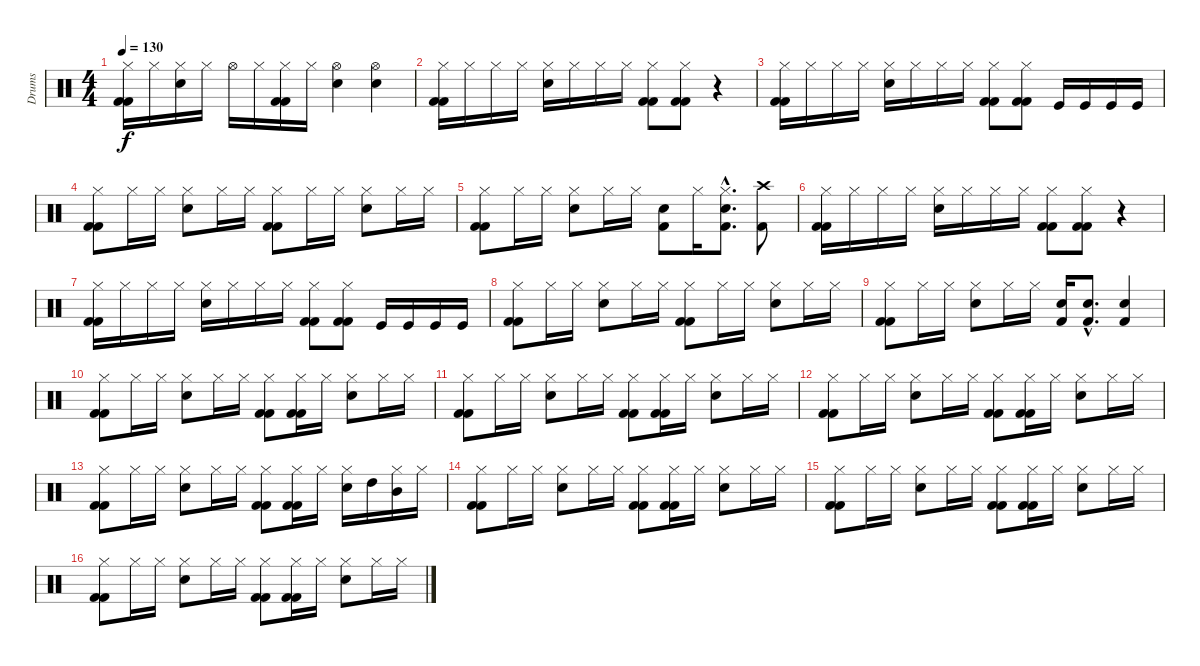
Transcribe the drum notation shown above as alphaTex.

\track ("Drums" "Drums") {instrument percussion}
\staff {score}
\articulation defaults
\ts (4 4)
\tempo 130
\clef neutral
\ks c
("Hi-Hat (closed)" "Kick (hit) 2" "Kick (hit) 2").16{dy f} "Hi-Hat (closed)".16 ("Hi-Hat (closed)" "Electric Snare (hit)").16 "Hi-Hat (closed)".16 "Hi-Hat (open)".16 "Hi-Hat (closed)".16 ("Hi-Hat (closed)" "Kick (hit) 2" "Kick (hit) 2").16 "Hi-Hat (closed)".16 ("Hi-Hat (open)" "Electric Snare (hit)").4 ("Hi-Hat (open)" "Electric Snare (hit)").4 |
("Hi-Hat (closed)" "Kick (hit) 2" "Kick (hit) 2").16 "Hi-Hat (closed)".16 "Hi-Hat (closed)".16 "Hi-Hat (closed)".16 ("Hi-Hat (closed)" "Electric Snare (hit)").16 "Hi-Hat (closed)".16 "Hi-Hat (closed)".16 "Hi-Hat (closed)".16 ("Hi-Hat (closed)" "Kick (hit) 2" "Kick (hit) 2").8 ("Hi-Hat (closed)" "Kick (hit) 2" "Kick (hit) 2").8 r.4 |
("Hi-Hat (closed)" "Kick (hit) 2" "Kick (hit) 2").16 "Hi-Hat (closed)".16 "Hi-Hat (closed)".16 "Hi-Hat (closed)".16 ("Hi-Hat (closed)" "Electric Snare (hit)").16 "Hi-Hat (closed)".16 "Hi-Hat (closed)".16 "Hi-Hat (closed)".16 ("Hi-Hat (closed)" "Kick (hit) 2" "Kick (hit) 2").8 ("Hi-Hat (closed)" "Kick (hit) 2" "Kick (hit) 2").8 "Kick (hit)".16 "Kick (hit)".16 "Kick (hit)".16 "Kick (hit)".16 |
("Hi-Hat (closed)" "Kick (hit) 2" "Kick (hit) 2").8 "Hi-Hat (closed)".16 "Hi-Hat (closed)".16 ("Hi-Hat (closed)" "Electric Snare (hit)").8 "Hi-Hat (closed)".16 "Hi-Hat (closed)".16 ("Hi-Hat (closed)" "Kick (hit) 2" "Kick (hit) 2").8 "Hi-Hat (closed)".16 "Hi-Hat (closed)".16 ("Hi-Hat (closed)" "Electric Snare (hit)").8 "Hi-Hat (closed)".16 "Hi-Hat (closed)".16 |
("Hi-Hat (closed)" "Kick (hit) 2" "Kick (hit) 2").8 "Hi-Hat (closed)".16 "Hi-Hat (closed)".16 ("Hi-Hat (closed)" "Electric Snare (hit)").8 "Hi-Hat (closed)".16 "Hi-Hat (closed)".16 ("Electric Snare (hit)" "Kick (hit) 2").8 "Hi-Hat (closed)".16 ("Hi-Hat (closed)"{hac} "Electric Snare (hit)"{hac} "Kick (hit) 2"{hac}).8{d} ("Crash high (hit)" "Kick (hit) 2").8 |
("Hi-Hat (closed)" "Kick (hit) 2" "Kick (hit) 2").16 "Hi-Hat (closed)".16 "Hi-Hat (closed)".16 "Hi-Hat (closed)".16 ("Hi-Hat (closed)" "Electric Snare (hit)").16 "Hi-Hat (closed)".16 "Hi-Hat (closed)".16 "Hi-Hat (closed)".16 ("Hi-Hat (closed)" "Kick (hit) 2" "Kick (hit) 2").8 ("Hi-Hat (closed)" "Kick (hit) 2" "Kick (hit) 2").8 r.4 |
("Hi-Hat (closed)" "Kick (hit) 2" "Kick (hit) 2").16 "Hi-Hat (closed)".16 "Hi-Hat (closed)".16 "Hi-Hat (closed)".16 ("Hi-Hat (closed)" "Electric Snare (hit)").16 "Hi-Hat (closed)".16 "Hi-Hat (closed)".16 "Hi-Hat (closed)".16 ("Hi-Hat (closed)" "Kick (hit) 2" "Kick (hit) 2").8 ("Hi-Hat (closed)" "Kick (hit) 2" "Kick (hit) 2").8 "Kick (hit)".16 "Kick (hit)".16 "Kick (hit)".16 "Kick (hit)".16 |
("Hi-Hat (closed)" "Kick (hit) 2" "Kick (hit) 2").8 "Hi-Hat (closed)".16 "Hi-Hat (closed)".16 ("Hi-Hat (closed)" "Electric Snare (hit)").8 "Hi-Hat (closed)".16 "Hi-Hat (closed)".16 ("Hi-Hat (closed)" "Kick (hit) 2" "Kick (hit) 2").8 "Hi-Hat (closed)".16 "Hi-Hat (closed)".16 ("Hi-Hat (closed)" "Electric Snare (hit)").8 "Hi-Hat (closed)".16 "Hi-Hat (closed)".16 |
("Hi-Hat (closed)" "Kick (hit) 2" "Kick (hit) 2").8 "Hi-Hat (closed)".16 "Hi-Hat (closed)".16 ("Hi-Hat (closed)" "Electric Snare (hit)").8 "Hi-Hat (closed)".16 "Hi-Hat (closed)".16 ("Electric Snare (hit)" "Kick (hit) 2").16 ("Electric Snare (hit)"{hac} "Kick (hit) 2"{hac}).8{d} ("Electric Snare (hit)" "Kick (hit) 2").4 |
("Hi-Hat (closed)" "Kick (hit) 2" "Kick (hit) 2").8 "Hi-Hat (closed)".16 "Hi-Hat (closed)".16 ("Hi-Hat (closed)" "Electric Snare (hit)").8 "Hi-Hat (closed)".16 "Hi-Hat (closed)".16 ("Hi-Hat (closed)" "Kick (hit) 2" "Kick (hit) 2").8 ("Hi-Hat (closed)" "Kick (hit) 2" "Kick (hit) 2").16 "Hi-Hat (closed)".16 ("Hi-Hat (closed)" "Electric Snare (hit)").8 "Hi-Hat (closed)".16 "Hi-Hat (closed)".16 |
("Hi-Hat (closed)" "Kick (hit) 2" "Kick (hit) 2").8 "Hi-Hat (closed)".16 "Hi-Hat (closed)".16 ("Hi-Hat (closed)" "Electric Snare (hit)").8 "Hi-Hat (closed)".16 "Hi-Hat (closed)".16 ("Hi-Hat (closed)" "Kick (hit) 2" "Kick (hit) 2").8 ("Hi-Hat (closed)" "Kick (hit) 2" "Kick (hit) 2").16 "Hi-Hat (closed)".16 ("Hi-Hat (closed)" "Electric Snare (hit)").8 "Hi-Hat (closed)".16 "Hi-Hat (closed)".16 |
("Hi-Hat (closed)" "Kick (hit) 2" "Kick (hit) 2").8 "Hi-Hat (closed)".16 "Hi-Hat (closed)".16 ("Hi-Hat (closed)" "Electric Snare (hit)").8 "Hi-Hat (closed)".16 "Hi-Hat (closed)".16 ("Hi-Hat (closed)" "Kick (hit) 2" "Kick (hit) 2").8 ("Hi-Hat (closed)" "Kick (hit) 2" "Kick (hit) 2").16 "Hi-Hat (closed)".16 ("Hi-Hat (closed)" "Electric Snare (hit)").8 "Hi-Hat (closed)".16 "Hi-Hat (closed)".16 |
("Hi-Hat (closed)" "Kick (hit) 2" "Kick (hit) 2").8 "Hi-Hat (closed)".16 "Hi-Hat (closed)".16 ("Hi-Hat (closed)" "Electric Snare (hit)").8 "Hi-Hat (closed)".16 "Hi-Hat (closed)".16 ("Hi-Hat (closed)" "Kick (hit) 2" "Kick (hit) 2").8 ("Hi-Hat (closed)" "Kick (hit) 2" "Kick (hit) 2").16 "Hi-Hat (closed)".16 ("Hi-Hat (closed)" "Electric Snare (hit)").16 "High Tom (hit)".16 ("Hi-Hat (closed)" "Mid Tom (hit)").16 "Hi-Hat (closed)".16 |
("Hi-Hat (closed)" "Kick (hit) 2" "Kick (hit) 2").8 "Hi-Hat (closed)".16 "Hi-Hat (closed)".16 ("Hi-Hat (closed)" "Electric Snare (hit)").8 "Hi-Hat (closed)".16 "Hi-Hat (closed)".16 ("Hi-Hat (closed)" "Kick (hit) 2" "Kick (hit) 2").8 ("Hi-Hat (closed)" "Kick (hit) 2" "Kick (hit) 2").16 "Hi-Hat (closed)".16 ("Hi-Hat (closed)" "Electric Snare (hit)").8 "Hi-Hat (closed)".16 "Hi-Hat (closed)".16 |
("Hi-Hat (closed)" "Kick (hit) 2" "Kick (hit) 2").8 "Hi-Hat (closed)".16 "Hi-Hat (closed)".16 ("Hi-Hat (closed)" "Electric Snare (hit)").8 "Hi-Hat (closed)".16 "Hi-Hat (closed)".16 ("Hi-Hat (closed)" "Kick (hit) 2" "Kick (hit) 2").8 ("Hi-Hat (closed)" "Kick (hit) 2" "Kick (hit) 2").16 "Hi-Hat (closed)".16 ("Hi-Hat (closed)" "Electric Snare (hit)").8 "Hi-Hat (closed)".16 "Hi-Hat (closed)".16 |
("Hi-Hat (closed)" "Kick (hit) 2" "Kick (hit) 2").8 "Hi-Hat (closed)".16 "Hi-Hat (closed)".16 ("Hi-Hat (closed)" "Electric Snare (hit)").8 "Hi-Hat (closed)".16 "Hi-Hat (closed)".16 ("Hi-Hat (closed)" "Kick (hit) 2" "Kick (hit) 2").8 ("Hi-Hat (closed)" "Kick (hit) 2" "Kick (hit) 2").16 "Hi-Hat (closed)".16 ("Hi-Hat (closed)" "Electric Snare (hit)").8 "Hi-Hat (closed)".16 "Hi-Hat (closed)".16
